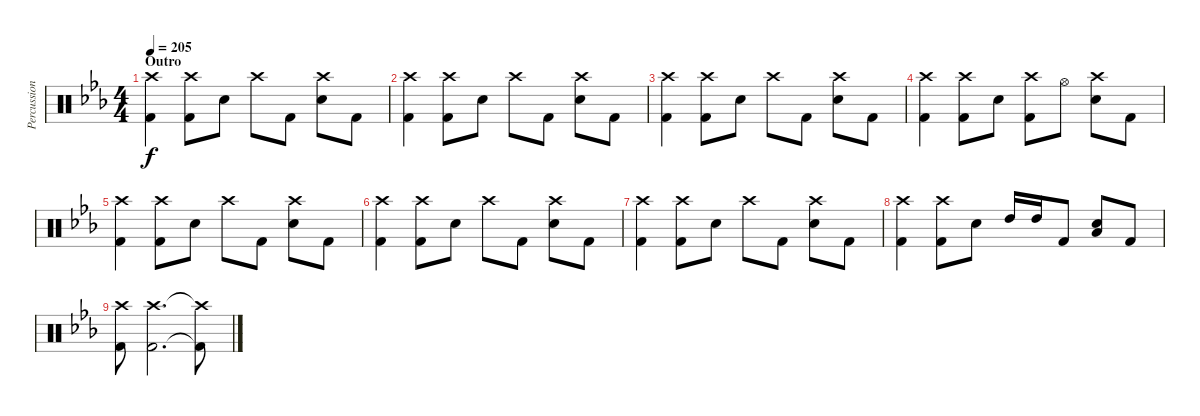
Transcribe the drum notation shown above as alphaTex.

\track ("Percussion" "Percussion") {instrument percussion}
\staff {score}
\articulation defaults
\ts (4 4)
\section ("" "Outro")
\tempo 205
\clef neutral
\ks eb
("Crash high (hit)" "Kick (hit) 2").4{dy f} ("Crash high (hit)" "Kick (hit) 2").8 "Snare (hit) 2".8 "Crash high (hit)".8 "Kick (hit) 2".8 ("Crash high (hit)" "Snare (hit) 2").8 "Kick (hit) 2".8 |
("Crash high (hit)" "Kick (hit) 2").4 ("Crash high (hit)" "Kick (hit) 2").8 "Snare (hit) 2".8 "Crash high (hit)".8 "Kick (hit) 2".8 ("Crash high (hit)" "Snare (hit) 2").8 "Kick (hit) 2".8 |
("Crash high (hit)" "Kick (hit) 2").4 ("Crash high (hit)" "Kick (hit) 2").8 "Snare (hit) 2".8 "Crash high (hit)".8 "Kick (hit) 2".8 ("Crash high (hit)" "Snare (hit) 2").8 "Kick (hit) 2".8 |
("Crash high (hit)" "Kick (hit) 2").4 ("Crash high (hit)" "Kick (hit) 2").8 "Snare (hit) 2".8 ("Crash high (hit)" "Kick (hit) 2").8 "Hi-Hat (open)".8 ("Crash high (hit)" "Snare (hit) 2").8 "Kick (hit) 2".8 |
("Crash high (hit)" "Kick (hit) 2").4 ("Crash high (hit)" "Kick (hit) 2").8 "Snare (hit) 2".8 "Crash high (hit)".8 "Kick (hit) 2".8 ("Crash high (hit)" "Snare (hit) 2").8 "Kick (hit) 2".8 |
("Crash high (hit)" "Kick (hit) 2").4 ("Crash high (hit)" "Kick (hit) 2").8 "Snare (hit) 2".8 "Crash high (hit)".8 "Kick (hit) 2".8 ("Crash high (hit)" "Snare (hit) 2").8 "Kick (hit) 2".8 |
("Crash high (hit)" "Kick (hit) 2").4 ("Crash high (hit)" "Kick (hit) 2").8 "Snare (hit) 2".8 "Crash high (hit)".8 "Kick (hit) 2".8 ("Crash high (hit)" "Snare (hit) 2").8 "Kick (hit) 2".8 |
("Crash high (hit)" "Kick (hit) 2").4 ("Crash high (hit)" "Kick (hit) 2").8 "Snare (hit) 2".8 "High Tom (hit)".16 "High Tom (hit)".16 "Kick (hit) 2".8 ("Low Tom (hit)" "Snare (hit) 2").8 "Kick (hit) 2".8 |
("Crash high (hit)" "Kick (hit) 2").8 ("Crash high (hit)" "Kick (hit) 2").2{d} ("Crash high (hit)"{t} "Kick (hit) 2"{t}).8
